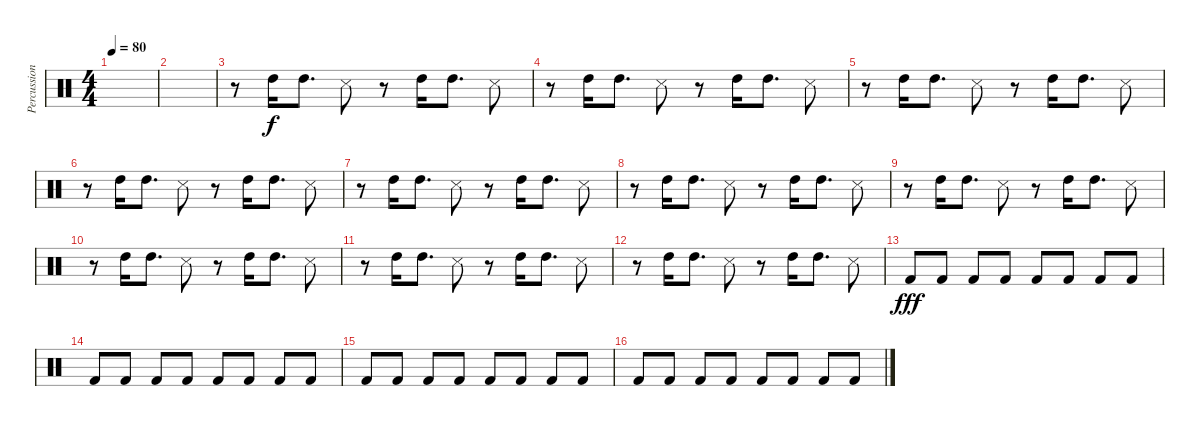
\track ("Percussion" "Percussion") {instrument percussion}
\staff {score}
\articulation defaults
\ts (4 4)
\tempo 80
\clef neutral
\ks c
|
|
r.8 "High Tom (hit)".16 "High Tom (hit)".8{d} "Snare (side stick) 3".8 r.8 "High Tom (hit)".16 "High Tom (hit)".8{d} "Snare (side stick) 3".8 |
r.8 "High Tom (hit)".16 "High Tom (hit)".8{d} "Snare (side stick) 3".8 r.8 "High Tom (hit)".16 "High Tom (hit)".8{d} "Snare (side stick) 3".8 |
r.8 "High Tom (hit)".16 "High Tom (hit)".8{d} "Snare (side stick) 3".8 r.8 "High Tom (hit)".16 "High Tom (hit)".8{d} "Snare (side stick) 3".8 |
r.8 "High Tom (hit)".16 "High Tom (hit)".8{d} "Snare (side stick) 3".8 r.8 "High Tom (hit)".16 "High Tom (hit)".8{d} "Snare (side stick) 3".8 |
r.8 "High Tom (hit)".16 "High Tom (hit)".8{d} "Snare (side stick) 3".8 r.8 "High Tom (hit)".16 "High Tom (hit)".8{d} "Snare (side stick) 3".8 |
r.8 "High Tom (hit)".16 "High Tom (hit)".8{d} "Snare (side stick) 3".8 r.8 "High Tom (hit)".16 "High Tom (hit)".8{d} "Snare (side stick) 3".8 |
r.8 "High Tom (hit)".16 "High Tom (hit)".8{d} "Snare (side stick) 3".8 r.8 "High Tom (hit)".16 "High Tom (hit)".8{d} "Snare (side stick) 3".8 |
r.8 "High Tom (hit)".16 "High Tom (hit)".8{d} "Snare (side stick) 3".8 r.8 "High Tom (hit)".16 "High Tom (hit)".8{d} "Snare (side stick) 3".8 |
r.8 "High Tom (hit)".16 "High Tom (hit)".8{d} "Snare (side stick) 3".8 r.8 "High Tom (hit)".16 "High Tom (hit)".8{d} "Snare (side stick) 3".8 |
r.8 "High Tom (hit)".16 "High Tom (hit)".8{d} "Snare (side stick) 3".8 r.8 "High Tom (hit)".16 "High Tom (hit)".8{d} "Snare (side stick) 3".8 |
"Kick (hit) 2".8{dy fff} "Kick (hit) 2".8 "Kick (hit) 2".8 "Kick (hit) 2".8 "Kick (hit) 2".8 "Kick (hit) 2".8 "Kick (hit) 2".8 "Kick (hit) 2".8 |
"Kick (hit) 2".8 "Kick (hit) 2".8 "Kick (hit) 2".8 "Kick (hit) 2".8 "Kick (hit) 2".8 "Kick (hit) 2".8 "Kick (hit) 2".8 "Kick (hit) 2".8 |
"Kick (hit) 2".8 "Kick (hit) 2".8 "Kick (hit) 2".8 "Kick (hit) 2".8 "Kick (hit) 2".8 "Kick (hit) 2".8 "Kick (hit) 2".8 "Kick (hit) 2".8 |
"Kick (hit) 2".8 "Kick (hit) 2".8 "Kick (hit) 2".8 "Kick (hit) 2".8 "Kick (hit) 2".8 "Kick (hit) 2".8 "Kick (hit) 2".8 "Kick (hit) 2".8
